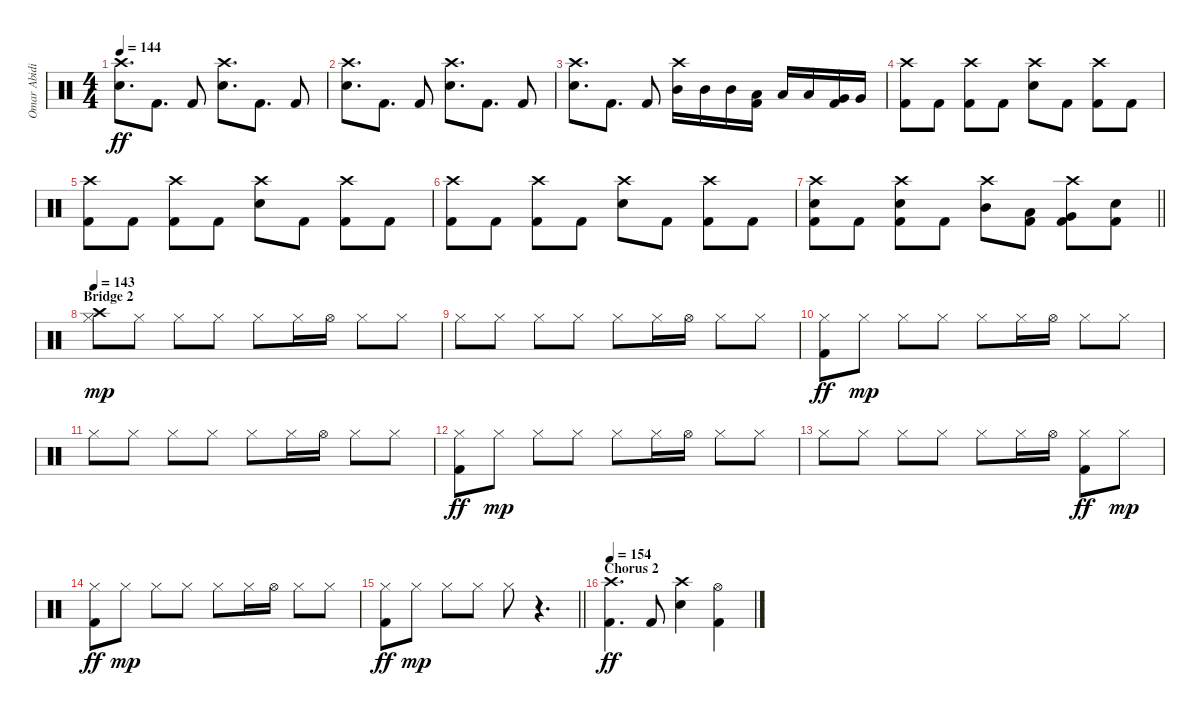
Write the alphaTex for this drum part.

\track ("Omar Abidi" "Omar Abidi") {instrument percussion}
\staff {score}
\articulation defaults
\ts (4 4)
\tempo 144
\clef neutral
\ks c
("Crash high (hit)" "Electric Snare (hit)").8{d dy ff} "Kick (hit) 2".8{d} "Kick (hit) 2".8 ("Crash high (hit)" "Electric Snare (hit)").8{d} "Kick (hit) 2".8{d} "Kick (hit) 2".8 |
("Crash high (hit)" "Electric Snare (hit)").8{d} "Kick (hit) 2".8{d} "Kick (hit) 2".8 ("Crash high (hit)" "Electric Snare (hit)").8{d} "Kick (hit) 2".8{d} "Kick (hit) 2".8 |
("Crash high (hit)" "Electric Snare (hit)").8{d} "Kick (hit) 2".8{d} "Kick (hit) 2".8 ("Crash high (hit)" "Mid Tom (hit)").16 "Mid Tom (hit)".16 "Mid Tom (hit)".16 ("Low Tom (hit)" "Kick (hit) 2").16 "Low Tom (hit)".16 "Low Tom (hit)".16 ("Very Low Tom (hit)" "Kick (hit) 2").16 "Very Low Tom (hit)".16 |
("Crash high (hit)" "Kick (hit) 2").8 "Kick (hit) 2".8 ("Crash high (hit)" "Kick (hit) 2").8 "Kick (hit) 2".8 ("Crash high (hit)" "Electric Snare (hit)").8 "Kick (hit) 2".8 ("Crash high (hit)" "Kick (hit) 2").8 "Kick (hit) 2".8 |
("Crash high (hit)" "Kick (hit) 2").8 "Kick (hit) 2".8 ("Crash high (hit)" "Kick (hit) 2").8 "Kick (hit) 2".8 ("Crash high (hit)" "Electric Snare (hit)").8 "Kick (hit) 2".8 ("Crash high (hit)" "Kick (hit) 2").8 "Kick (hit) 2".8 |
("Crash high (hit)" "Kick (hit) 2").8 "Kick (hit) 2".8 ("Crash high (hit)" "Kick (hit) 2").8 "Kick (hit) 2".8 ("Crash high (hit)" "Electric Snare (hit)").8 "Kick (hit) 2".8 ("Crash high (hit)" "Kick (hit) 2").8 "Kick (hit) 2".8 |
\barLineRight lightlight
("Crash high (hit)" "Electric Snare (hit)" "Kick (hit) 2").8 "Kick (hit) 2".8 ("Crash high (hit)" "Electric Snare (hit)" "Kick (hit) 2").8 "Kick (hit) 2".8 ("Crash high (hit)" "Mid Tom (hit)").8 ("Low Tom (hit)" "Kick (hit) 2").8 ("Crash high (hit)" "Very Low Tom (hit)" "Kick (hit) 2").8 ("Electric Snare (hit)" "Kick (hit) 2").8 |
\section ("" "Bridge 2")
\tempo 143
("Crash high (hit)" "Hi-Hat (closed)").8{dy mp} "Hi-Hat (closed)".8 "Hi-Hat (closed)".8 "Hi-Hat (closed)".8 "Hi-Hat (closed)".8 "Hi-Hat (closed)".16 "Hi-Hat (open)".16 "Hi-Hat (closed)".8 "Hi-Hat (closed)".8 |
"Hi-Hat (closed)".8 "Hi-Hat (closed)".8 "Hi-Hat (closed)".8 "Hi-Hat (closed)".8 "Hi-Hat (closed)".8 "Hi-Hat (closed)".16 "Hi-Hat (open)".16 "Hi-Hat (closed)".8 "Hi-Hat (closed)".8 |
("Hi-Hat (closed)" "Kick (hit) 2").8{dy ff} "Hi-Hat (closed)".8{dy mp} "Hi-Hat (closed)".8 "Hi-Hat (closed)".8 "Hi-Hat (closed)".8 "Hi-Hat (closed)".16 "Hi-Hat (open)".16 "Hi-Hat (closed)".8 "Hi-Hat (closed)".8 |
"Hi-Hat (closed)".8 "Hi-Hat (closed)".8 "Hi-Hat (closed)".8 "Hi-Hat (closed)".8 "Hi-Hat (closed)".8 "Hi-Hat (closed)".16 "Hi-Hat (open)".16 "Hi-Hat (closed)".8 "Hi-Hat (closed)".8 |
("Hi-Hat (closed)" "Kick (hit) 2").8{dy ff} "Hi-Hat (closed)".8{dy mp} "Hi-Hat (closed)".8 "Hi-Hat (closed)".8 "Hi-Hat (closed)".8 "Hi-Hat (closed)".16 "Hi-Hat (open)".16 "Hi-Hat (closed)".8 "Hi-Hat (closed)".8 |
"Hi-Hat (closed)".8 "Hi-Hat (closed)".8 "Hi-Hat (closed)".8 "Hi-Hat (closed)".8 "Hi-Hat (closed)".8 "Hi-Hat (closed)".16 "Hi-Hat (open)".16 ("Hi-Hat (closed)" "Kick (hit) 2").8{dy ff} "Hi-Hat (closed)".8{dy mp} |
("Hi-Hat (closed)" "Kick (hit) 2").8{dy ff} "Hi-Hat (closed)".8{dy mp} "Hi-Hat (closed)".8 "Hi-Hat (closed)".8 "Hi-Hat (closed)".8 "Hi-Hat (closed)".16 "Hi-Hat (open)".16 "Hi-Hat (closed)".8 "Hi-Hat (closed)".8 |
\barLineRight lightlight
("Hi-Hat (closed)" "Kick (hit) 2").8{dy ff} "Hi-Hat (closed)".8{dy mp} "Hi-Hat (closed)".8 "Hi-Hat (closed)".8 "Hi-Hat (closed)".8 r.4{d} |
\section ("" "Chorus 2")
\tempo 154
("Crash high (hit)" "Kick (hit) 2").4{d dy ff} "Kick (hit) 2".8 ("Crash high (hit)" "Electric Snare (hit)").4 ("Hi-Hat (open)" "Kick (hit) 2").4
